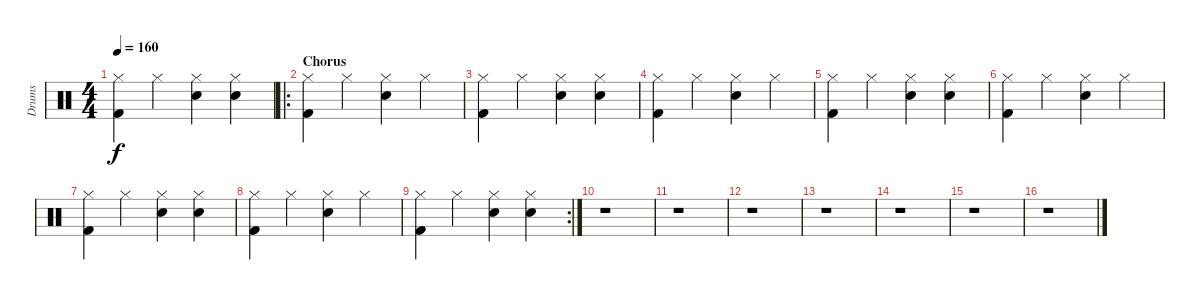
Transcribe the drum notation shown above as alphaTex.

\track ("Drums" "Drums") {instrument percussion}
\staff {score}
\articulation defaults
\ts (4 4)
\tempo 160
\clef neutral
\ks c
("Hi-Hat (closed)" "Kick (hit) 2").4{dy f} "Hi-Hat (closed)".4 ("Hi-Hat (closed)" "Snare (hit) 2").4 ("Hi-Hat (closed)" "Snare (hit) 2").4 |
\ro
\section ("" "Chorus")
("Hi-Hat (closed)" "Kick (hit) 2").4 "Hi-Hat (closed)".4 ("Hi-Hat (closed)" "Snare (hit) 2").4 "Hi-Hat (closed)".4 |
("Hi-Hat (closed)" "Kick (hit) 2").4 "Hi-Hat (closed)".4 ("Hi-Hat (closed)" "Snare (hit) 2").4 ("Hi-Hat (closed)" "Snare (hit) 2").4 |
("Hi-Hat (closed)" "Kick (hit) 2").4 "Hi-Hat (closed)".4 ("Hi-Hat (closed)" "Snare (hit) 2").4 "Hi-Hat (closed)".4 |
("Hi-Hat (closed)" "Kick (hit) 2").4 "Hi-Hat (closed)".4 ("Hi-Hat (closed)" "Snare (hit) 2").4 ("Hi-Hat (closed)" "Snare (hit) 2").4 |
("Hi-Hat (closed)" "Kick (hit) 2").4 "Hi-Hat (closed)".4 ("Hi-Hat (closed)" "Snare (hit) 2").4 "Hi-Hat (closed)".4 |
("Hi-Hat (closed)" "Kick (hit) 2").4 "Hi-Hat (closed)".4 ("Hi-Hat (closed)" "Snare (hit) 2").4 ("Hi-Hat (closed)" "Snare (hit) 2").4 |
("Hi-Hat (closed)" "Kick (hit) 2").4 "Hi-Hat (closed)".4 ("Hi-Hat (closed)" "Snare (hit) 2").4 "Hi-Hat (closed)".4 |
\rc 2
("Hi-Hat (closed)" "Kick (hit) 2").4 "Hi-Hat (closed)".4 ("Hi-Hat (closed)" "Snare (hit) 2").4 ("Hi-Hat (closed)" "Snare (hit) 2").4 |
r.1 |
r.1 |
r.1 |
r.1 |
r.1 |
r.1 |
r.1
